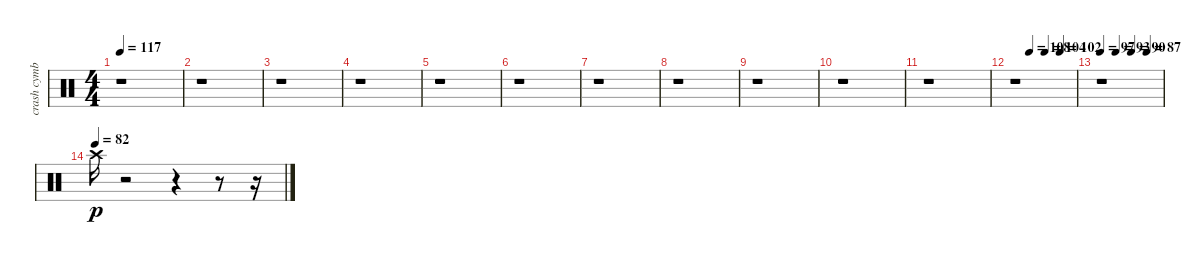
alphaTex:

\track ("crash cymbal" "crash cymb") {instrument percussion}
\staff {score}
\articulation defaults
\ts (4 4)
\tempo 117
\clef neutral
\ks c
r.1{dy fff} |
r.1 |
r.1 |
r.1 |
r.1 |
r.1 |
r.1 |
r.1 |
r.1 |
r.1 |
r.1 |
\tempo (108 0.25)
\tempo (104 0.5)
\tempo (102 0.75)
r.1 |
\tempo 97
\tempo (93 0.25)
\tempo (90 0.5)
\tempo (87 0.75)
r.1 |
\tempo (82)
"Crash high (hit)".16{dy p} r.2 r.4 r.8 r.16
